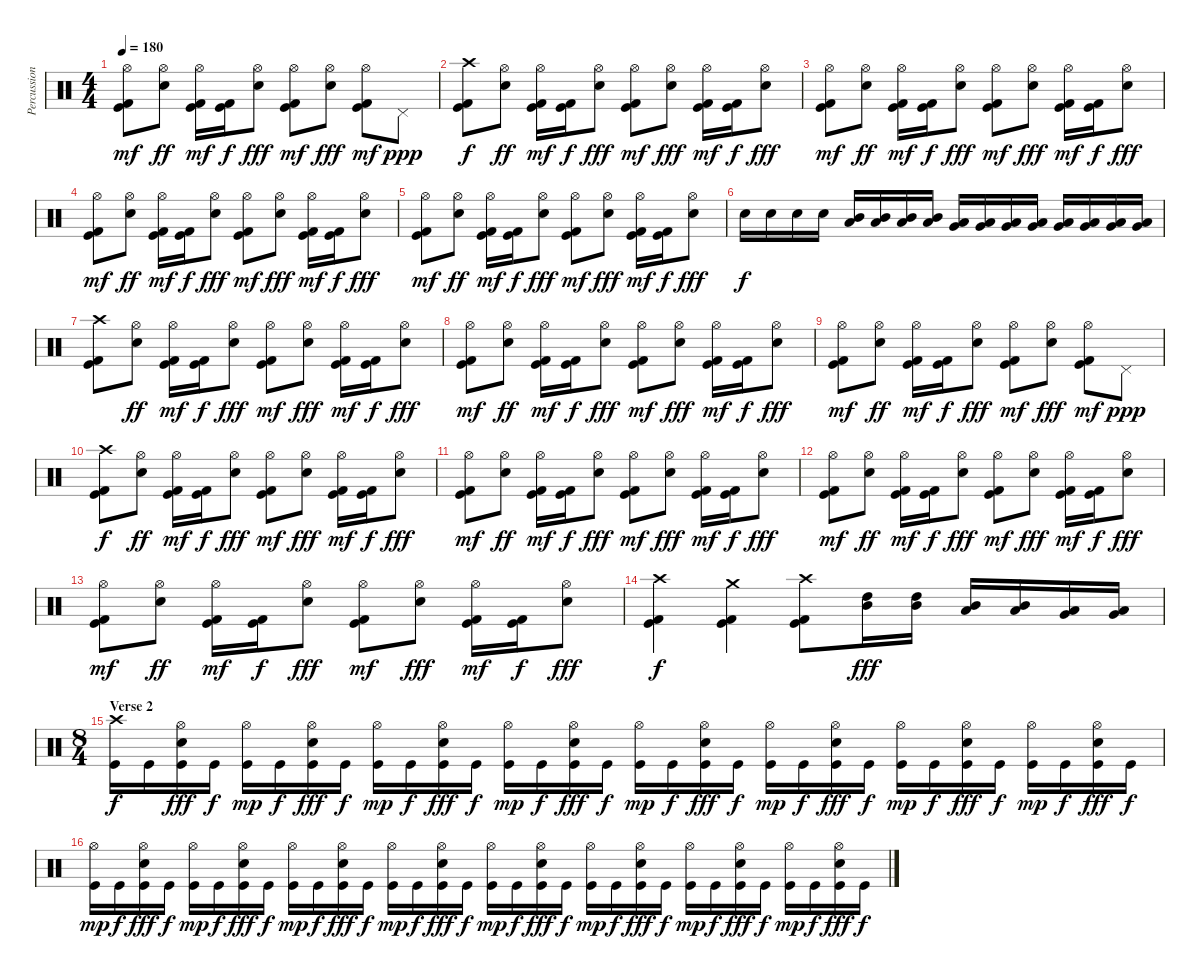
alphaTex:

\track ("Percussion" "Percussion") {instrument percussion}
\staff {score}
\articulation defaults
\ts (4 4)
\tempo 180
\clef neutral
\ks c
("Hi-Hat (open)" "Kick (hit)" "Kick (hit) 2").8{dy mf} ("Hi-Hat (open)" "Snare (hit) 2").8{dy ff} ("Hi-Hat (open)" "Kick (hit)" "Kick (hit) 2").16{dy mf} ("Kick (hit)" "Kick (hit) 2").16{dy f} ("Hi-Hat (open)" "Snare (hit) 2").8{dy fff} ("Hi-Hat (open)" "Kick (hit)" "Kick (hit) 2").8{dy mf} ("Hi-Hat (open)" "Snare (hit) 2").8{dy fff} ("Hi-Hat (open)" "Kick (hit)" "Kick (hit) 2").8{dy mf} "Pedal Hi-Hat (hit)".8{dy ppp} |
("Crash high (hit)" "Kick (hit)" "Kick (hit) 2").8{dy f} ("Hi-Hat (open)" "Snare (hit) 2").8{dy ff} ("Hi-Hat (open)" "Kick (hit)" "Kick (hit) 2").16{dy mf} ("Kick (hit)" "Kick (hit) 2").16{dy f} ("Hi-Hat (open)" "Snare (hit) 2").8{dy fff} ("Hi-Hat (open)" "Kick (hit)" "Kick (hit) 2").8{dy mf} ("Hi-Hat (open)" "Snare (hit) 2").8{dy fff} ("Hi-Hat (open)" "Kick (hit)" "Kick (hit) 2").16{dy mf} ("Kick (hit)" "Kick (hit) 2").16{dy f} ("Hi-Hat (open)" "Snare (hit) 2").8{dy fff} |
("Hi-Hat (open)" "Kick (hit)" "Kick (hit) 2").8{dy mf} ("Hi-Hat (open)" "Snare (hit) 2").8{dy ff} ("Hi-Hat (open)" "Kick (hit)" "Kick (hit) 2").16{dy mf} ("Kick (hit)" "Kick (hit) 2").16{dy f} ("Hi-Hat (open)" "Snare (hit) 2").8{dy fff} ("Hi-Hat (open)" "Kick (hit)" "Kick (hit) 2").8{dy mf} ("Hi-Hat (open)" "Snare (hit) 2").8{dy fff} ("Hi-Hat (open)" "Kick (hit)" "Kick (hit) 2").16{dy mf} ("Kick (hit)" "Kick (hit) 2").16{dy f} ("Hi-Hat (open)" "Snare (hit) 2").8{dy fff} |
("Hi-Hat (open)" "Kick (hit)" "Kick (hit) 2").8{dy mf} ("Hi-Hat (open)" "Snare (hit) 2").8{dy ff} ("Hi-Hat (open)" "Kick (hit)" "Kick (hit) 2").16{dy mf} ("Kick (hit)" "Kick (hit) 2").16{dy f} ("Hi-Hat (open)" "Snare (hit) 2").8{dy fff} ("Hi-Hat (open)" "Kick (hit)" "Kick (hit) 2").8{dy mf} ("Hi-Hat (open)" "Snare (hit) 2").8{dy fff} ("Hi-Hat (open)" "Kick (hit)" "Kick (hit) 2").16{dy mf} ("Kick (hit)" "Kick (hit) 2").16{dy f} ("Hi-Hat (open)" "Snare (hit) 2").8{dy fff} |
("Hi-Hat (open)" "Kick (hit)" "Kick (hit) 2").8{dy mf} ("Hi-Hat (open)" "Snare (hit) 2").8{dy ff} ("Hi-Hat (open)" "Kick (hit)" "Kick (hit) 2").16{dy mf} ("Kick (hit)" "Kick (hit) 2").16{dy f} ("Hi-Hat (open)" "Snare (hit) 2").8{dy fff} ("Hi-Hat (open)" "Kick (hit)" "Kick (hit) 2").8{dy mf} ("Hi-Hat (open)" "Snare (hit) 2").8{dy fff} ("Hi-Hat (open)" "Kick (hit)" "Kick (hit) 2").16{dy mf} ("Kick (hit)" "Kick (hit) 2").16{dy f} ("Hi-Hat (open)" "Snare (hit) 2").8{dy fff} |
"Snare (hit) 2".16{dy f} "Snare (hit) 2".16 "Snare (hit) 2".16 "Snare (hit) 2".16 ("Low Tom (hit)" "Mid Tom (hit)").16 ("Low Tom (hit)" "Mid Tom (hit)").16 ("Low Tom (hit)" "Mid Tom (hit)").16 ("Low Tom (hit)" "Mid Tom (hit)").16 ("Very Low Tom (hit)" "Low Tom (hit)").16 ("Very Low Tom (hit)" "Low Tom (hit)").16 ("Very Low Tom (hit)" "Low Tom (hit)").16 ("Very Low Tom (hit)" "Low Tom (hit)").16 ("Low Floor Tom (hit)" "Very Low Tom (hit)").16 ("Low Floor Tom (hit)" "Very Low Tom (hit)").16 ("Low Floor Tom (hit)" "Very Low Tom (hit)").16 ("Low Floor Tom (hit)" "Very Low Tom (hit)").16 |
("Crash high (hit)" "Kick (hit)" "Kick (hit) 2").8 ("Hi-Hat (open)" "Snare (hit) 2").8{dy ff} ("Hi-Hat (open)" "Kick (hit)" "Kick (hit) 2").16{dy mf} ("Kick (hit)" "Kick (hit) 2").16{dy f} ("Hi-Hat (open)" "Snare (hit) 2").8{dy fff} ("Hi-Hat (open)" "Kick (hit)" "Kick (hit) 2").8{dy mf} ("Hi-Hat (open)" "Snare (hit) 2").8{dy fff} ("Hi-Hat (open)" "Kick (hit)" "Kick (hit) 2").16{dy mf} ("Kick (hit)" "Kick (hit) 2").16{dy f} ("Hi-Hat (open)" "Snare (hit) 2").8{dy fff} |
("Hi-Hat (open)" "Kick (hit)" "Kick (hit) 2").8{dy mf} ("Hi-Hat (open)" "Snare (hit) 2").8{dy ff} ("Hi-Hat (open)" "Kick (hit)" "Kick (hit) 2").16{dy mf} ("Kick (hit)" "Kick (hit) 2").16{dy f} ("Hi-Hat (open)" "Snare (hit) 2").8{dy fff} ("Hi-Hat (open)" "Kick (hit)" "Kick (hit) 2").8{dy mf} ("Hi-Hat (open)" "Snare (hit) 2").8{dy fff} ("Hi-Hat (open)" "Kick (hit)" "Kick (hit) 2").16{dy mf} ("Kick (hit)" "Kick (hit) 2").16{dy f} ("Hi-Hat (open)" "Snare (hit) 2").8{dy fff} |
("Hi-Hat (open)" "Kick (hit)" "Kick (hit) 2").8{dy mf} ("Hi-Hat (open)" "Snare (hit) 2").8{dy ff} ("Hi-Hat (open)" "Kick (hit)" "Kick (hit) 2").16{dy mf} ("Kick (hit)" "Kick (hit) 2").16{dy f} ("Hi-Hat (open)" "Snare (hit) 2").8{dy fff} ("Hi-Hat (open)" "Kick (hit)" "Kick (hit) 2").8{dy mf} ("Hi-Hat (open)" "Snare (hit) 2").8{dy fff} ("Hi-Hat (open)" "Kick (hit)" "Kick (hit) 2").8{dy mf} "Pedal Hi-Hat (hit)".8{dy ppp} |
("Crash high (hit)" "Kick (hit)" "Kick (hit) 2").8{dy f} ("Hi-Hat (open)" "Snare (hit) 2").8{dy ff} ("Hi-Hat (open)" "Kick (hit)" "Kick (hit) 2").16{dy mf} ("Kick (hit)" "Kick (hit) 2").16{dy f} ("Hi-Hat (open)" "Snare (hit) 2").8{dy fff} ("Hi-Hat (open)" "Kick (hit)" "Kick (hit) 2").8{dy mf} ("Hi-Hat (open)" "Snare (hit) 2").8{dy fff} ("Hi-Hat (open)" "Kick (hit)" "Kick (hit) 2").16{dy mf} ("Kick (hit)" "Kick (hit) 2").16{dy f} ("Hi-Hat (open)" "Snare (hit) 2").8{dy fff} |
("Hi-Hat (open)" "Kick (hit)" "Kick (hit) 2").8{dy mf} ("Hi-Hat (open)" "Snare (hit) 2").8{dy ff} ("Hi-Hat (open)" "Kick (hit)" "Kick (hit) 2").16{dy mf} ("Kick (hit)" "Kick (hit) 2").16{dy f} ("Hi-Hat (open)" "Snare (hit) 2").8{dy fff} ("Hi-Hat (open)" "Kick (hit)" "Kick (hit) 2").8{dy mf} ("Hi-Hat (open)" "Snare (hit) 2").8{dy fff} ("Hi-Hat (open)" "Kick (hit)" "Kick (hit) 2").16{dy mf} ("Kick (hit)" "Kick (hit) 2").16{dy f} ("Hi-Hat (open)" "Snare (hit) 2").8{dy fff} |
("Hi-Hat (open)" "Kick (hit)" "Kick (hit) 2").8{dy mf} ("Hi-Hat (open)" "Snare (hit) 2").8{dy ff} ("Hi-Hat (open)" "Kick (hit)" "Kick (hit) 2").16{dy mf} ("Kick (hit)" "Kick (hit) 2").16{dy f} ("Hi-Hat (open)" "Snare (hit) 2").8{dy fff} ("Hi-Hat (open)" "Kick (hit)" "Kick (hit) 2").8{dy mf} ("Hi-Hat (open)" "Snare (hit) 2").8{dy fff} ("Hi-Hat (open)" "Kick (hit)" "Kick (hit) 2").16{dy mf} ("Kick (hit)" "Kick (hit) 2").16{dy f} ("Hi-Hat (open)" "Snare (hit) 2").8{dy fff} |
("Hi-Hat (open)" "Kick (hit)" "Kick (hit) 2").8{dy mf} ("Hi-Hat (open)" "Snare (hit) 2").8{dy ff} ("Hi-Hat (open)" "Kick (hit)" "Kick (hit) 2").16{dy mf} ("Kick (hit)" "Kick (hit) 2").16{dy f} ("Hi-Hat (open)" "Snare (hit) 2").8{dy fff} ("Hi-Hat (open)" "Kick (hit)" "Kick (hit) 2").8{dy mf} ("Hi-Hat (open)" "Snare (hit) 2").8{dy fff} ("Hi-Hat (open)" "Kick (hit)" "Kick (hit) 2").16{dy mf} ("Kick (hit)" "Kick (hit) 2").16{dy f} ("Hi-Hat (open)" "Snare (hit) 2").8{dy fff} |
("Crash high (hit)" "Kick (hit)" "Kick (hit) 2").4{dy f} ("Crash medium (hit)" "Kick (hit)" "Kick (hit) 2").4 ("Crash high (hit)" "Kick (hit)" "Kick (hit) 2").8 ("Mid Tom (hit)" "High Tom (hit)").16{dy fff} ("Mid Tom (hit)" "High Tom (hit)").16 ("Low Tom (hit)" "Mid Tom (hit)").16 ("Low Tom (hit)" "Mid Tom (hit)").16 ("Very Low Tom (hit)" "Low Tom (hit)").16 ("Very Low Tom (hit)" "Low Tom (hit)").16 |
\ts (8 4)
\section ("" "Verse 2")
("Crash high (hit)" "Kick (hit)").16{dy f} "Kick (hit)".16 ("Hi-Hat (open)" "Snare (hit) 2" "Kick (hit)").16{dy fff} "Kick (hit)".16{dy f} ("Hi-Hat (open)" "Kick (hit)").16{dy mp} "Kick (hit)".16{dy f} ("Hi-Hat (open)" "Snare (hit) 2" "Kick (hit)").16{dy fff} "Kick (hit)".16{dy f} ("Hi-Hat (open)" "Kick (hit)").16{dy mp} "Kick (hit)".16{dy f} ("Hi-Hat (open)" "Snare (hit) 2" "Kick (hit)").16{dy fff} "Kick (hit)".16{dy f} ("Hi-Hat (open)" "Kick (hit)").16{dy mp} "Kick (hit)".16{dy f} ("Hi-Hat (open)" "Snare (hit) 2" "Kick (hit)").16{dy fff} "Kick (hit)".16{dy f} ("Hi-Hat (open)" "Kick (hit)").16{dy mp} "Kick (hit)".16{dy f} ("Hi-Hat (open)" "Snare (hit) 2" "Kick (hit)").16{dy fff} "Kick (hit)".16{dy f} ("Hi-Hat (open)" "Kick (hit)").16{dy mp} "Kick (hit)".16{dy f} ("Hi-Hat (open)" "Snare (hit) 2" "Kick (hit)").16{dy fff} "Kick (hit)".16{dy f} ("Hi-Hat (open)" "Kick (hit)").16{dy mp} "Kick (hit)".16{dy f} ("Hi-Hat (open)" "Snare (hit) 2" "Kick (hit)").16{dy fff} "Kick (hit)".16{dy f} ("Hi-Hat (open)" "Kick (hit)").16{dy mp} "Kick (hit)".16{dy f} ("Hi-Hat (open)" "Snare (hit) 2" "Kick (hit)").16{dy fff} "Kick (hit)".16{dy f} |
("Hi-Hat (open)" "Kick (hit)").16{dy mp} "Kick (hit)".16{dy f} ("Hi-Hat (open)" "Snare (hit) 2" "Kick (hit)").16{dy fff} "Kick (hit)".16{dy f} ("Hi-Hat (open)" "Kick (hit)").16{dy mp} "Kick (hit)".16{dy f} ("Hi-Hat (open)" "Snare (hit) 2" "Kick (hit)").16{dy fff} "Kick (hit)".16{dy f} ("Hi-Hat (open)" "Kick (hit)").16{dy mp} "Kick (hit)".16{dy f} ("Hi-Hat (open)" "Snare (hit) 2" "Kick (hit)").16{dy fff} "Kick (hit)".16{dy f} ("Hi-Hat (open)" "Kick (hit)").16{dy mp} "Kick (hit)".16{dy f} ("Hi-Hat (open)" "Snare (hit) 2" "Kick (hit)").16{dy fff} "Kick (hit)".16{dy f} ("Hi-Hat (open)" "Kick (hit)").16{dy mp} "Kick (hit)".16{dy f} ("Hi-Hat (open)" "Snare (hit) 2" "Kick (hit)").16{dy fff} "Kick (hit)".16{dy f} ("Hi-Hat (open)" "Kick (hit)").16{dy mp} "Kick (hit)".16{dy f} ("Hi-Hat (open)" "Snare (hit) 2" "Kick (hit)").16{dy fff} "Kick (hit)".16{dy f} ("Hi-Hat (open)" "Kick (hit)").16{dy mp} "Kick (hit)".16{dy f} ("Hi-Hat (open)" "Snare (hit) 2" "Kick (hit)").16{dy fff} "Kick (hit)".16{dy f} ("Hi-Hat (open)" "Kick (hit)").16{dy mp} "Kick (hit)".16{dy f} ("Hi-Hat (open)" "Snare (hit) 2" "Kick (hit)").16{dy fff} "Kick (hit)".16{dy f}
